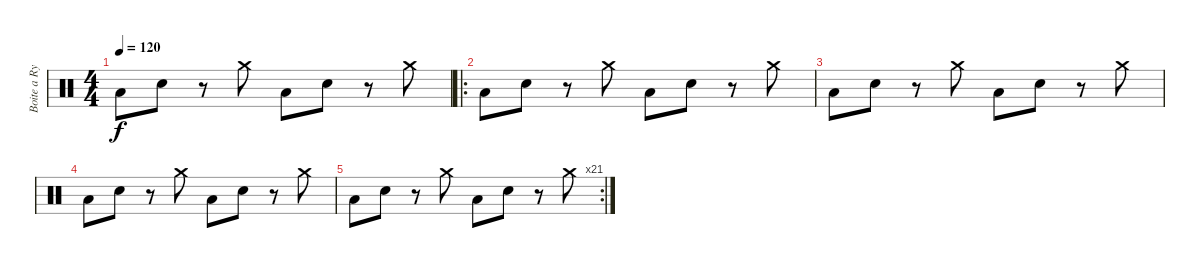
\track ("Boite a Rythme" "Boite a Ry") {instrument percussion}
\staff {score}
\articulation defaults
\ts (4 4)
\tempo 120
\clef neutral
\ks c "Low Tom (hit)".8{dy f} "Snare (hit) 2".8
r.8 "Crash medium (hit)".8 "Low Tom (hit)".8 "Snare (hit) 2".8 r.8 "Crash medium (hit)".8 |
\ro "Low Tom (hit)".8 "Snare (hit) 2".8
r.8 "Crash medium (hit)".8 "Low Tom (hit)".8 "Snare (hit) 2".8 r.8 "Crash medium (hit)".8 |
"Low Tom (hit)".8 "Snare (hit) 2".8 r.8 "Crash medium (hit)".8 "Low Tom (hit)".8 "Snare (hit) 2".8 r.8 "Crash medium (hit)".8 |
"Low Tom (hit)".8 "Snare (hit) 2".8 r.8 "Crash medium (hit)".8 "Low Tom (hit)".8 "Snare (hit) 2".8 r.8 "Crash medium (hit)".8 |
\rc 21 "Low Tom (hit)".8 "Snare (hit) 2".8
r.8 "Crash medium (hit)".8 "Low Tom (hit)".8 "Snare (hit) 2".8 r.8 "Crash medium (hit)".8
